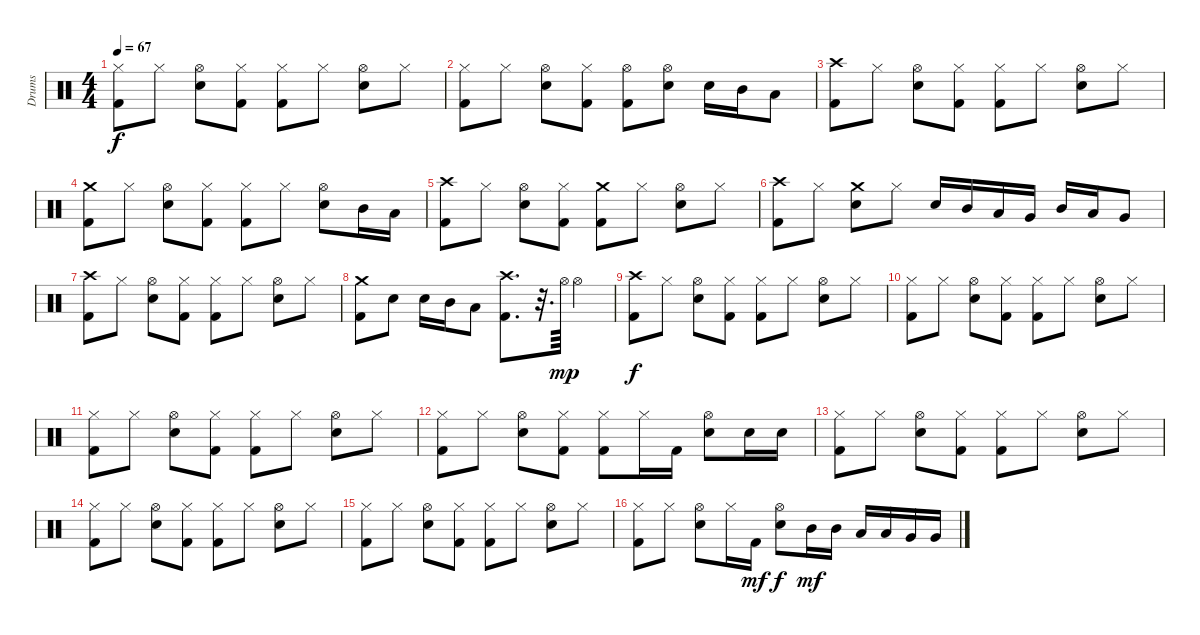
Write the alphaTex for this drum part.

\track ("Drums" "Drums") {instrument percussion}
\staff {score}
\articulation defaults
\ts (4 4)
\tempo 67
\clef neutral
\ks c
("Kick (hit) 2" "Hi-Hat (closed)").8{dy f} "Hi-Hat (closed)".8 ("Electric Snare (hit)" "Hi-Hat (open)").8 ("Kick (hit) 2" "Hi-Hat (closed)").8 ("Kick (hit) 2" "Hi-Hat (closed)").8 "Hi-Hat (closed)".8 ("Electric Snare (hit)" "Hi-Hat (open)").8 "Hi-Hat (closed)".8 |
("Kick (hit) 2" "Hi-Hat (closed)").8 "Hi-Hat (closed)".8 ("Electric Snare (hit)" "Hi-Hat (open)").8 ("Kick (hit) 2" "Hi-Hat (closed)").8 ("Kick (hit) 2" "Hi-Hat (open)").8 ("Electric Snare (hit)" "Hi-Hat (open)").8 "Electric Snare (hit)".16 "Mid Tom (hit)".16 "Low Tom (hit)".8 |
("Kick (hit) 2" "Crash high (hit)").8 "Hi-Hat (closed)".8 ("Electric Snare (hit)" "Hi-Hat (open)").8 ("Kick (hit) 2" "Hi-Hat (closed)").8 ("Kick (hit) 2" "Hi-Hat (closed)").8 "Hi-Hat (closed)".8 ("Electric Snare (hit)" "Hi-Hat (open)").8 "Hi-Hat (closed)".8 |
("Kick (hit) 2" "Crash medium (hit)").8 "Hi-Hat (closed)".8 ("Electric Snare (hit)" "Hi-Hat (open)").8 ("Kick (hit) 2" "Hi-Hat (closed)").8 ("Kick (hit) 2" "Hi-Hat (closed)").8 "Hi-Hat (closed)".8 ("Electric Snare (hit)" "Hi-Hat (open)").8 "Mid Tom (hit)".16 "Low Tom (hit)".16 |
("Kick (hit) 2" "Crash high (hit)").8 "Hi-Hat (closed)".8 ("Electric Snare (hit)" "Hi-Hat (open)").8 ("Kick (hit) 2" "Hi-Hat (closed)").8 ("Kick (hit) 2" "Crash medium (hit)").8 "Hi-Hat (closed)".8 ("Electric Snare (hit)" "Hi-Hat (open)").8 "Hi-Hat (closed)".8 |
("Kick (hit) 2" "Crash high (hit)").8 "Hi-Hat (closed)".8 ("Electric Snare (hit)" "Crash medium (hit)").8 "Hi-Hat (closed)".8 "Electric Snare (hit)".16 "Mid Tom (hit)".16 "Low Tom (hit)".16 "Very Low Tom (hit)".16 "Mid Tom (hit)".16 "Low Tom (hit)".16 "Very Low Tom (hit)".8 |
("Kick (hit) 2" "Crash high (hit)").8 "Hi-Hat (closed)".8 ("Electric Snare (hit)" "Hi-Hat (open)").8 ("Kick (hit) 2" "Hi-Hat (closed)").8 ("Kick (hit) 2" "Hi-Hat (closed)").8 "Hi-Hat (closed)".8 ("Electric Snare (hit)" "Hi-Hat (open)").8 "Hi-Hat (closed)".8 |
("Kick (hit) 2" "Crash medium (hit)").8 "Electric Snare (hit)".8 "Electric Snare (hit)".16 "Mid Tom (hit)".16 "Low Tom (hit)".8 ("Kick (hit) 2" "Crash high (hit)").8{d} r.32{d} "Hi-Hat (open)".64{dy mp} "Hi-Hat (open)".4 |
("Kick (hit) 2" "Crash high (hit)").8{dy f} "Hi-Hat (closed)".8 ("Electric Snare (hit)" "Hi-Hat (open)").8 ("Kick (hit) 2" "Hi-Hat (closed)").8 ("Kick (hit) 2" "Hi-Hat (closed)").8 "Hi-Hat (closed)".8 ("Electric Snare (hit)" "Hi-Hat (open)").8 "Hi-Hat (closed)".8 |
("Kick (hit) 2" "Hi-Hat (closed)").8 "Hi-Hat (closed)".8 ("Electric Snare (hit)" "Hi-Hat (open)").8 ("Kick (hit) 2" "Hi-Hat (closed)").8 ("Kick (hit) 2" "Hi-Hat (closed)").8 "Hi-Hat (closed)".8 ("Electric Snare (hit)" "Hi-Hat (open)").8 "Hi-Hat (closed)".8 |
("Kick (hit) 2" "Hi-Hat (closed)").8 "Hi-Hat (closed)".8 ("Electric Snare (hit)" "Hi-Hat (open)").8 ("Kick (hit) 2" "Hi-Hat (closed)").8 ("Kick (hit) 2" "Hi-Hat (closed)").8 "Hi-Hat (closed)".8 ("Electric Snare (hit)" "Hi-Hat (open)").8 "Hi-Hat (closed)".8 |
("Kick (hit) 2" "Hi-Hat (closed)").8 "Hi-Hat (closed)".8 ("Electric Snare (hit)" "Hi-Hat (open)").8 ("Kick (hit) 2" "Hi-Hat (closed)").8 ("Kick (hit) 2" "Hi-Hat (closed)").8 "Hi-Hat (closed)".16 "Kick (hit) 2".16 ("Electric Snare (hit)" "Hi-Hat (open)").8 "Electric Snare (hit)".16 "Electric Snare (hit)".16 |
("Kick (hit) 2" "Hi-Hat (closed)").8 "Hi-Hat (closed)".8 ("Electric Snare (hit)" "Hi-Hat (open)").8 ("Kick (hit) 2" "Hi-Hat (closed)").8 ("Kick (hit) 2" "Hi-Hat (closed)").8 "Hi-Hat (closed)".8 ("Electric Snare (hit)" "Hi-Hat (open)").8 "Hi-Hat (closed)".8 |
("Kick (hit) 2" "Hi-Hat (closed)").8 "Hi-Hat (closed)".8 ("Electric Snare (hit)" "Hi-Hat (open)").8 ("Kick (hit) 2" "Hi-Hat (closed)").8 ("Kick (hit) 2" "Hi-Hat (closed)").8 "Hi-Hat (closed)".8 ("Electric Snare (hit)" "Hi-Hat (open)").8 "Hi-Hat (closed)".8 |
("Kick (hit) 2" "Hi-Hat (closed)").8 "Hi-Hat (closed)".8 ("Electric Snare (hit)" "Hi-Hat (open)").8 ("Kick (hit) 2" "Hi-Hat (closed)").8 ("Kick (hit) 2" "Hi-Hat (closed)").8 "Hi-Hat (closed)".8 ("Electric Snare (hit)" "Hi-Hat (open)").8 "Hi-Hat (closed)".8 |
("Kick (hit) 2" "Hi-Hat (closed)").8 "Hi-Hat (closed)".8 ("Electric Snare (hit)" "Hi-Hat (open)").8 "Hi-Hat (closed)".16 "Kick (hit) 2".16{dy mf} ("Electric Snare (hit)" "Hi-Hat (open)").8{dy f} "Mid Tom (hit)".16{dy mf} "Mid Tom (hit)".16 "Low Tom (hit)".16 "Low Tom (hit)".16 "Very Low Tom (hit)".16 "Very Low Tom (hit)".16
